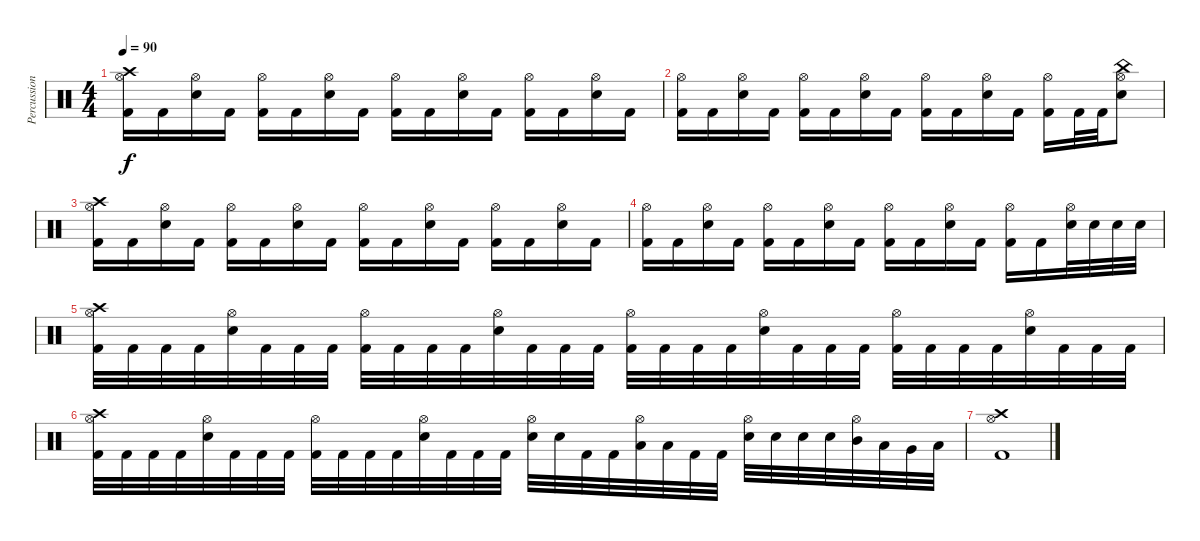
\track ("Percussions" "Percussion") {instrument percussion}
\staff {score}
\articulation defaults
\ts (4 4)
\tempo 90
\clef neutral
\ks c
("Crash high (hit)" "Hi-Hat (open)" "Kick (hit) 2").16{dy f} "Kick (hit) 2".16 ("Hi-Hat (open)" "Electric Snare (hit)").16 "Kick (hit) 2".16 ("Hi-Hat (open)" "Kick (hit) 2").16 "Kick (hit) 2".16 ("Hi-Hat (open)" "Electric Snare (hit)").16 "Kick (hit) 2".16 ("Hi-Hat (open)" "Kick (hit) 2").16 "Kick (hit) 2".16 ("Hi-Hat (open)" "Electric Snare (hit)").16 "Kick (hit) 2".16 ("Hi-Hat (open)" "Kick (hit) 2").16 "Kick (hit) 2".16 ("Hi-Hat (open)" "Electric Snare (hit)").16 "Kick (hit) 2".16 |
("Hi-Hat (open)" "Kick (hit) 2").16 "Kick (hit) 2".16 ("Hi-Hat (open)" "Electric Snare (hit)").16 "Kick (hit) 2".16 ("Hi-Hat (open)" "Kick (hit) 2").16 "Kick (hit) 2".16 ("Hi-Hat (open)" "Electric Snare (hit)").16 "Kick (hit) 2".16 ("Hi-Hat (open)" "Kick (hit) 2").16 "Kick (hit) 2".16 ("Hi-Hat (open)" "Electric Snare (hit)").16 "Kick (hit) 2".16 ("Hi-Hat (open)" "Kick (hit) 2").16 "Kick (hit) 2".32 "Kick (hit) 2".32 ("China (hit)" "Hi-Hat (open)" "Electric Snare (hit)").8 |
("Crash high (hit)" "Hi-Hat (open)" "Kick (hit) 2").16 "Kick (hit) 2".16 ("Hi-Hat (open)" "Electric Snare (hit)").16 "Kick (hit) 2".16 ("Hi-Hat (open)" "Kick (hit) 2").16 "Kick (hit) 2".16 ("Hi-Hat (open)" "Electric Snare (hit)").16 "Kick (hit) 2".16 ("Hi-Hat (open)" "Kick (hit) 2").16 "Kick (hit) 2".16 ("Hi-Hat (open)" "Electric Snare (hit)").16 "Kick (hit) 2".16 ("Hi-Hat (open)" "Kick (hit) 2").16 "Kick (hit) 2".16 ("Hi-Hat (open)" "Electric Snare (hit)").16 "Kick (hit) 2".16 |
("Hi-Hat (open)" "Kick (hit) 2").16 "Kick (hit) 2".16 ("Hi-Hat (open)" "Electric Snare (hit)").16 "Kick (hit) 2".16 ("Hi-Hat (open)" "Kick (hit) 2").16 "Kick (hit) 2".16 ("Hi-Hat (open)" "Electric Snare (hit)").16 "Kick (hit) 2".16 ("Hi-Hat (open)" "Kick (hit) 2").16 "Kick (hit) 2".16 ("Hi-Hat (open)" "Electric Snare (hit)").16 "Kick (hit) 2".16 ("Hi-Hat (open)" "Kick (hit) 2").16 "Kick (hit) 2".16 ("Hi-Hat (open)" "Electric Snare (hit)").32 "Electric Snare (hit)".32 "Electric Snare (hit)".32 "Electric Snare (hit)".32 |
("Crash high (hit)" "Hi-Hat (open)" "Kick (hit) 2").32 "Kick (hit) 2".32 "Kick (hit) 2".32 "Kick (hit) 2".32 ("Hi-Hat (open)" "Electric Snare (hit)").32 "Kick (hit) 2".32 "Kick (hit) 2".32 "Kick (hit) 2".32 ("Hi-Hat (open)" "Kick (hit) 2").32 "Kick (hit) 2".32 "Kick (hit) 2".32 "Kick (hit) 2".32 ("Hi-Hat (open)" "Electric Snare (hit)").32 "Kick (hit) 2".32 "Kick (hit) 2".32 "Kick (hit) 2".32 ("Hi-Hat (open)" "Kick (hit) 2").32 "Kick (hit) 2".32 "Kick (hit) 2".32 "Kick (hit) 2".32 ("Hi-Hat (open)" "Electric Snare (hit)").32 "Kick (hit) 2".32 "Kick (hit) 2".32 "Kick (hit) 2".32 ("Hi-Hat (open)" "Kick (hit) 2").32 "Kick (hit) 2".32 "Kick (hit) 2".32 "Kick (hit) 2".32 ("Hi-Hat (open)" "Electric Snare (hit)").32 "Kick (hit) 2".32 "Kick (hit) 2".32 "Kick (hit) 2".32 |
("Crash high (hit)" "Hi-Hat (open)" "Kick (hit) 2").32 "Kick (hit) 2".32 "Kick (hit) 2".32 "Kick (hit) 2".32 ("Hi-Hat (open)" "Electric Snare (hit)").32 "Kick (hit) 2".32 "Kick (hit) 2".32 "Kick (hit) 2".32 ("Hi-Hat (open)" "Kick (hit) 2").32 "Kick (hit) 2".32 "Kick (hit) 2".32 "Kick (hit) 2".32 ("Hi-Hat (open)" "Electric Snare (hit)").32 "Kick (hit) 2".32 "Kick (hit) 2".32 "Kick (hit) 2".32 ("Hi-Hat (open)" "Electric Snare (hit)").32 "Electric Snare (hit)".32 "Kick (hit) 2".32 "Kick (hit) 2".32 ("Hi-Hat (open)" "Low Tom (hit)").32 "Low Tom (hit)".32 "Kick (hit) 2".32 "Kick (hit) 2".32 ("Hi-Hat (open)" "Electric Snare (hit)").32 "Electric Snare (hit)".32 "Electric Snare (hit)".32 "Electric Snare (hit)".32 ("Hi-Hat (open)" "Mid Tom (hit)").32 "Low Tom (hit)".32 "Very Low Tom (hit)".32 "Low Floor Tom (hit)".32 |
("Crash high (hit)" "Hi-Hat (open)" "Kick (hit) 2").1
